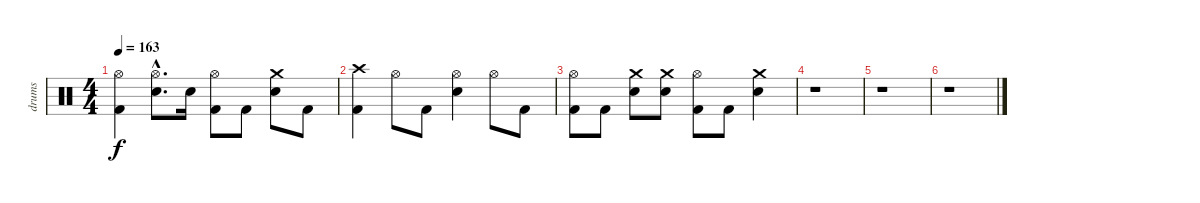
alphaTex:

\track ("drums" "drums") {instrument percussion}
\staff {score}
\articulation defaults
\ts (4 4)
\tempo 163
\clef neutral
\ks c
("Hi-Hat (open)" "Kick (hit) 2").4{dy f} ("Hi-Hat (open)"{hac} "Electric Snare (hit)"{hac}).8{d} "Electric Snare (hit)".16 ("Hi-Hat (open)" "Kick (hit) 2").8 "Kick (hit) 2".8 ("Crash medium (hit)" "Electric Snare (hit)").8 "Kick (hit) 2".8 |
("Crash high (hit)" "Kick (hit) 2").4 "Hi-Hat (open)".8 "Kick (hit) 2".8 ("Hi-Hat (open)" "Electric Snare (hit)").4 "Hi-Hat (open)".8 "Kick (hit) 2".8 |
("Hi-Hat (open)" "Kick (hit) 2").8 "Kick (hit) 2".8 ("Crash medium (hit)" "Electric Snare (hit)").8 ("Crash medium (hit)" "Electric Snare (hit)").8 ("Hi-Hat (open)" "Kick (hit) 2").8 "Kick (hit) 2".8 ("Crash medium (hit)" "Electric Snare (hit)").4 |
r.1 |
r.1 |
r.1
